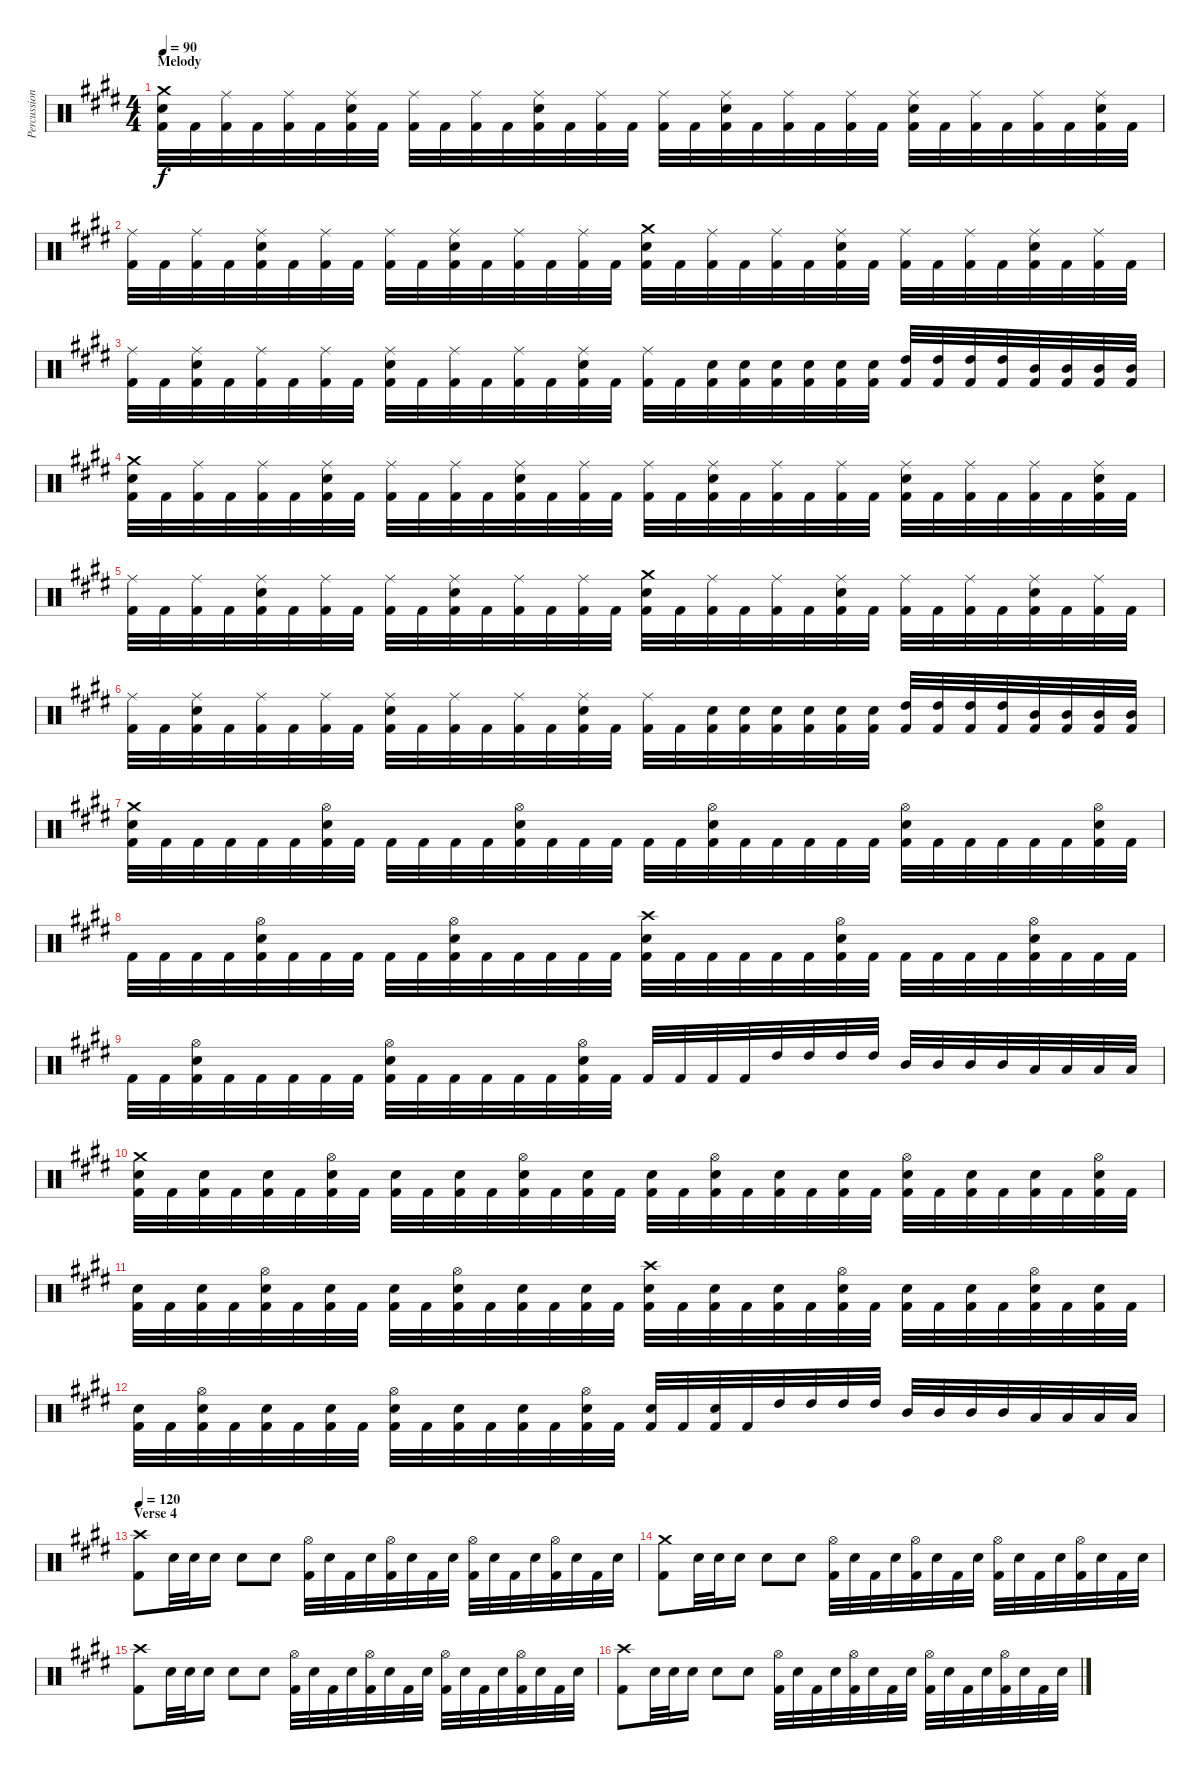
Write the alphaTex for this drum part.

\track ("Percussion" "Percussion") {instrument percussion}
\staff {score}
\articulation defaults
\ts (4 4)
\section ("" "Melody")
\tempo 90
\clef neutral
\ks c#minor
("Crash medium (hit)" "Snare (hit) 2" "Kick (hit) 2").32{dy f} "Kick (hit) 2".32 ("Ride (middle)" "Kick (hit) 2").32 "Kick (hit) 2".32 ("Ride (middle)" "Kick (hit) 2").32 "Kick (hit) 2".32 ("Ride (middle)" "Snare (hit) 2" "Kick (hit) 2").32 "Kick (hit) 2".32 ("Ride (middle)" "Kick (hit) 2").32 "Kick (hit) 2".32 ("Ride (middle)" "Kick (hit) 2").32 "Kick (hit) 2".32 ("Ride (middle)" "Snare (hit) 2" "Kick (hit) 2").32 "Kick (hit) 2".32 ("Ride (middle)" "Kick (hit) 2").32 "Kick (hit) 2".32 ("Ride (middle)" "Kick (hit) 2").32 "Kick (hit) 2".32 ("Ride (middle)" "Snare (hit) 2" "Kick (hit) 2").32 "Kick (hit) 2".32 ("Ride (middle)" "Kick (hit) 2").32 "Kick (hit) 2".32 ("Ride (middle)" "Kick (hit) 2").32 "Kick (hit) 2".32 ("Ride (middle)" "Snare (hit) 2" "Kick (hit) 2").32 "Kick (hit) 2".32 ("Ride (middle)" "Kick (hit) 2").32 "Kick (hit) 2".32 ("Ride (middle)" "Kick (hit) 2").32 "Kick (hit) 2".32 ("Ride (middle)" "Snare (hit) 2" "Kick (hit) 2").32 "Kick (hit) 2".32 |
("Ride (middle)" "Kick (hit) 2").32 "Kick (hit) 2".32 ("Ride (middle)" "Kick (hit) 2").32 "Kick (hit) 2".32 ("Ride (middle)" "Snare (hit) 2" "Kick (hit) 2").32 "Kick (hit) 2".32 ("Ride (middle)" "Kick (hit) 2").32 "Kick (hit) 2".32 ("Ride (middle)" "Kick (hit) 2").32 "Kick (hit) 2".32 ("Ride (middle)" "Snare (hit) 2" "Kick (hit) 2").32 "Kick (hit) 2".32 ("Ride (middle)" "Kick (hit) 2").32 "Kick (hit) 2".32 ("Ride (middle)" "Kick (hit) 2").32 "Kick (hit) 2".32 ("Crash medium (hit)" "Snare (hit) 2" "Kick (hit) 2").32 "Kick (hit) 2".32 ("Ride (middle)" "Kick (hit) 2").32 "Kick (hit) 2".32 ("Ride (middle)" "Kick (hit) 2").32 "Kick (hit) 2".32 ("Ride (middle)" "Snare (hit) 2" "Kick (hit) 2").32 "Kick (hit) 2".32 ("Ride (middle)" "Kick (hit) 2").32 "Kick (hit) 2".32 ("Ride (middle)" "Kick (hit) 2").32 "Kick (hit) 2".32 ("Ride (middle)" "Snare (hit) 2" "Kick (hit) 2").32 "Kick (hit) 2".32 ("Ride (middle)" "Kick (hit) 2").32 "Kick (hit) 2".32 |
("Ride (middle)" "Kick (hit) 2").32 "Kick (hit) 2".32 ("Ride (middle)" "Snare (hit) 2" "Kick (hit) 2").32 "Kick (hit) 2".32 ("Ride (middle)" "Kick (hit) 2").32 "Kick (hit) 2".32 ("Ride (middle)" "Kick (hit) 2").32 "Kick (hit) 2".32 ("Ride (middle)" "Snare (hit) 2" "Kick (hit) 2").32 "Kick (hit) 2".32 ("Ride (middle)" "Kick (hit) 2").32 "Kick (hit) 2".32 ("Ride (middle)" "Kick (hit) 2").32 "Kick (hit) 2".32 ("Ride (middle)" "Snare (hit) 2" "Kick (hit) 2").32 "Kick (hit) 2".32 ("Ride (middle)" "Kick (hit) 2").32 "Kick (hit) 2".32 ("Snare (hit) 2" "Kick (hit) 2").32 ("Snare (hit) 2" "Kick (hit) 2").32 ("Snare (hit) 2" "Kick (hit) 2").32 ("Snare (hit) 2" "Kick (hit) 2").32 ("Snare (hit) 2" "Kick (hit) 2").32 ("Snare (hit) 2" "Kick (hit) 2").32 ("High Tom (hit)" "Kick (hit) 2").32 ("High Tom (hit)" "Kick (hit) 2").32 ("High Tom (hit)" "Kick (hit) 2").32 ("High Tom (hit)" "Kick (hit) 2").32 ("Mid Tom (hit)" "Kick (hit) 2").32 ("Mid Tom (hit)" "Kick (hit) 2").32 ("Mid Tom (hit)" "Kick (hit) 2").32 ("Mid Tom (hit)" "Kick (hit) 2").32 |
("Crash medium (hit)" "Snare (hit) 2" "Kick (hit) 2").32 "Kick (hit) 2".32 ("Ride (middle)" "Kick (hit) 2").32 "Kick (hit) 2".32 ("Ride (middle)" "Kick (hit) 2").32 "Kick (hit) 2".32 ("Ride (middle)" "Snare (hit) 2" "Kick (hit) 2").32 "Kick (hit) 2".32 ("Ride (middle)" "Kick (hit) 2").32 "Kick (hit) 2".32 ("Ride (middle)" "Kick (hit) 2").32 "Kick (hit) 2".32 ("Ride (middle)" "Snare (hit) 2" "Kick (hit) 2").32 "Kick (hit) 2".32 ("Ride (middle)" "Kick (hit) 2").32 "Kick (hit) 2".32 ("Ride (middle)" "Kick (hit) 2").32 "Kick (hit) 2".32 ("Ride (middle)" "Snare (hit) 2" "Kick (hit) 2").32 "Kick (hit) 2".32 ("Ride (middle)" "Kick (hit) 2").32 "Kick (hit) 2".32 ("Ride (middle)" "Kick (hit) 2").32 "Kick (hit) 2".32 ("Ride (middle)" "Snare (hit) 2" "Kick (hit) 2").32 "Kick (hit) 2".32 ("Ride (middle)" "Kick (hit) 2").32 "Kick (hit) 2".32 ("Ride (middle)" "Kick (hit) 2").32 "Kick (hit) 2".32 ("Ride (middle)" "Snare (hit) 2" "Kick (hit) 2").32 "Kick (hit) 2".32 |
("Ride (middle)" "Kick (hit) 2").32 "Kick (hit) 2".32 ("Ride (middle)" "Kick (hit) 2").32 "Kick (hit) 2".32 ("Ride (middle)" "Snare (hit) 2" "Kick (hit) 2").32 "Kick (hit) 2".32 ("Ride (middle)" "Kick (hit) 2").32 "Kick (hit) 2".32 ("Ride (middle)" "Kick (hit) 2").32 "Kick (hit) 2".32 ("Ride (middle)" "Snare (hit) 2" "Kick (hit) 2").32 "Kick (hit) 2".32 ("Ride (middle)" "Kick (hit) 2").32 "Kick (hit) 2".32 ("Ride (middle)" "Kick (hit) 2").32 "Kick (hit) 2".32 ("Crash medium (hit)" "Snare (hit) 2" "Kick (hit) 2").32 "Kick (hit) 2".32 ("Ride (middle)" "Kick (hit) 2").32 "Kick (hit) 2".32 ("Ride (middle)" "Kick (hit) 2").32 "Kick (hit) 2".32 ("Ride (middle)" "Snare (hit) 2" "Kick (hit) 2").32 "Kick (hit) 2".32 ("Ride (middle)" "Kick (hit) 2").32 "Kick (hit) 2".32 ("Ride (middle)" "Kick (hit) 2").32 "Kick (hit) 2".32 ("Ride (middle)" "Snare (hit) 2" "Kick (hit) 2").32 "Kick (hit) 2".32 ("Ride (middle)" "Kick (hit) 2").32 "Kick (hit) 2".32 |
("Ride (middle)" "Kick (hit) 2").32 "Kick (hit) 2".32 ("Ride (middle)" "Snare (hit) 2" "Kick (hit) 2").32 "Kick (hit) 2".32 ("Ride (middle)" "Kick (hit) 2").32 "Kick (hit) 2".32 ("Ride (middle)" "Kick (hit) 2").32 "Kick (hit) 2".32 ("Ride (middle)" "Snare (hit) 2" "Kick (hit) 2").32 "Kick (hit) 2".32 ("Ride (middle)" "Kick (hit) 2").32 "Kick (hit) 2".32 ("Ride (middle)" "Kick (hit) 2").32 "Kick (hit) 2".32 ("Ride (middle)" "Snare (hit) 2" "Kick (hit) 2").32 "Kick (hit) 2".32 ("Ride (middle)" "Kick (hit) 2").32 "Kick (hit) 2".32 ("Snare (hit) 2" "Kick (hit) 2").32 ("Snare (hit) 2" "Kick (hit) 2").32 ("Snare (hit) 2" "Kick (hit) 2").32 ("Snare (hit) 2" "Kick (hit) 2").32 ("Snare (hit) 2" "Kick (hit) 2").32 ("Snare (hit) 2" "Kick (hit) 2").32 ("High Tom (hit)" "Kick (hit) 2").32 ("High Tom (hit)" "Kick (hit) 2").32 ("High Tom (hit)" "Kick (hit) 2").32 ("High Tom (hit)" "Kick (hit) 2").32 ("Mid Tom (hit)" "Kick (hit) 2").32 ("Mid Tom (hit)" "Kick (hit) 2").32 ("Mid Tom (hit)" "Kick (hit) 2").32 ("Mid Tom (hit)" "Kick (hit) 2").32 |
("Crash medium (hit)" "Snare (hit) 2" "Kick (hit) 2").32 "Kick (hit) 2".32 "Kick (hit) 2".32 "Kick (hit) 2".32 "Kick (hit) 2".32 "Kick (hit) 2".32 ("Hi-Hat (open)" "Snare (hit) 2" "Kick (hit) 2").32 "Kick (hit) 2".32 "Kick (hit) 2".32 "Kick (hit) 2".32 "Kick (hit) 2".32 "Kick (hit) 2".32 ("Hi-Hat (open)" "Snare (hit) 2" "Kick (hit) 2").32 "Kick (hit) 2".32 "Kick (hit) 2".32 "Kick (hit) 2".32 "Kick (hit) 2".32 "Kick (hit) 2".32 ("Hi-Hat (open)" "Snare (hit) 2" "Kick (hit) 2").32 "Kick (hit) 2".32 "Kick (hit) 2".32 "Kick (hit) 2".32 "Kick (hit) 2".32 "Kick (hit) 2".32 ("Hi-Hat (open)" "Snare (hit) 2" "Kick (hit) 2").32 "Kick (hit) 2".32 "Kick (hit) 2".32 "Kick (hit) 2".32 "Kick (hit) 2".32 "Kick (hit) 2".32 ("Hi-Hat (open)" "Snare (hit) 2" "Kick (hit) 2").32 "Kick (hit) 2".32 |
"Kick (hit) 2".32 "Kick (hit) 2".32 "Kick (hit) 2".32 "Kick (hit) 2".32 ("Hi-Hat (open)" "Snare (hit) 2" "Kick (hit) 2").32 "Kick (hit) 2".32 "Kick (hit) 2".32 "Kick (hit) 2".32 "Kick (hit) 2".32 "Kick (hit) 2".32 ("Hi-Hat (open)" "Snare (hit) 2" "Kick (hit) 2").32 "Kick (hit) 2".32 "Kick (hit) 2".32 "Kick (hit) 2".32 "Kick (hit) 2".32 "Kick (hit) 2".32 ("Crash high (hit)" "Snare (hit) 2" "Kick (hit) 2").32 "Kick (hit) 2".32 "Kick (hit) 2".32 "Kick (hit) 2".32 "Kick (hit) 2".32 "Kick (hit) 2".32 ("Hi-Hat (open)" "Snare (hit) 2" "Kick (hit) 2").32 "Kick (hit) 2".32 "Kick (hit) 2".32 "Kick (hit) 2".32 "Kick (hit) 2".32 "Kick (hit) 2".32 ("Hi-Hat (open)" "Snare (hit) 2" "Kick (hit) 2").32 "Kick (hit) 2".32 "Kick (hit) 2".32 "Kick (hit) 2".32 |
"Kick (hit) 2".32 "Kick (hit) 2".32 ("Hi-Hat (open)" "Snare (hit) 2" "Kick (hit) 2").32 "Kick (hit) 2".32 "Kick (hit) 2".32 "Kick (hit) 2".32 "Kick (hit) 2".32 "Kick (hit) 2".32 ("Hi-Hat (open)" "Snare (hit) 2" "Kick (hit) 2").32 "Kick (hit) 2".32 "Kick (hit) 2".32 "Kick (hit) 2".32 "Kick (hit) 2".32 "Kick (hit) 2".32 ("Hi-Hat (open)" "Snare (hit) 2" "Kick (hit) 2").32 "Kick (hit) 2".32 "Kick (hit) 2".32 "Kick (hit) 2".32 "Kick (hit) 2".32 "Kick (hit) 2".32 "High Tom (hit)".32 "High Tom (hit)".32 "High Tom (hit)".32 "High Tom (hit)".32 "Mid Tom (hit)".32 "Mid Tom (hit)".32 "Mid Tom (hit)".32 "Mid Tom (hit)".32 "Low Tom (hit)".32 "Low Tom (hit)".32 "Low Tom (hit)".32 "Low Tom (hit)".32 |
("Crash medium (hit)" "Snare (hit) 2" "Kick (hit) 2").32 "Kick (hit) 2".32 ("Snare (hit) 2" "Kick (hit) 2").32 "Kick (hit) 2".32 ("Snare (hit) 2" "Kick (hit) 2").32 "Kick (hit) 2".32 ("Hi-Hat (open)" "Snare (hit) 2" "Kick (hit) 2").32 "Kick (hit) 2".32 ("Snare (hit) 2" "Kick (hit) 2").32 "Kick (hit) 2".32 ("Snare (hit) 2" "Kick (hit) 2").32 "Kick (hit) 2".32 ("Hi-Hat (open)" "Snare (hit) 2" "Kick (hit) 2").32 "Kick (hit) 2".32 ("Snare (hit) 2" "Kick (hit) 2").32 "Kick (hit) 2".32 ("Snare (hit) 2" "Kick (hit) 2").32 "Kick (hit) 2".32 ("Hi-Hat (open)" "Snare (hit) 2" "Kick (hit) 2").32 "Kick (hit) 2".32 ("Snare (hit) 2" "Kick (hit) 2").32 "Kick (hit) 2".32 ("Snare (hit) 2" "Kick (hit) 2").32 "Kick (hit) 2".32 ("Hi-Hat (open)" "Snare (hit) 2" "Kick (hit) 2").32 "Kick (hit) 2".32 ("Snare (hit) 2" "Kick (hit) 2").32 "Kick (hit) 2".32 ("Snare (hit) 2" "Kick (hit) 2").32 "Kick (hit) 2".32 ("Hi-Hat (open)" "Snare (hit) 2" "Kick (hit) 2").32 "Kick (hit) 2".32 |
("Snare (hit) 2" "Kick (hit) 2").32 "Kick (hit) 2".32 ("Snare (hit) 2" "Kick (hit) 2").32 "Kick (hit) 2".32 ("Hi-Hat (open)" "Snare (hit) 2" "Kick (hit) 2").32 "Kick (hit) 2".32 ("Snare (hit) 2" "Kick (hit) 2").32 "Kick (hit) 2".32 ("Snare (hit) 2" "Kick (hit) 2").32 "Kick (hit) 2".32 ("Hi-Hat (open)" "Snare (hit) 2" "Kick (hit) 2").32 "Kick (hit) 2".32 ("Snare (hit) 2" "Kick (hit) 2").32 "Kick (hit) 2".32 ("Snare (hit) 2" "Kick (hit) 2").32 "Kick (hit) 2".32 ("Crash high (hit)" "Snare (hit) 2" "Kick (hit) 2").32 "Kick (hit) 2".32 ("Snare (hit) 2" "Kick (hit) 2").32 "Kick (hit) 2".32 ("Snare (hit) 2" "Kick (hit) 2").32 "Kick (hit) 2".32 ("Hi-Hat (open)" "Snare (hit) 2" "Kick (hit) 2").32 "Kick (hit) 2".32 ("Snare (hit) 2" "Kick (hit) 2").32 "Kick (hit) 2".32 ("Snare (hit) 2" "Kick (hit) 2").32 "Kick (hit) 2".32 ("Hi-Hat (open)" "Snare (hit) 2" "Kick (hit) 2").32 "Kick (hit) 2".32 ("Snare (hit) 2" "Kick (hit) 2").32 "Kick (hit) 2".32 |
("Snare (hit) 2" "Kick (hit) 2").32 "Kick (hit) 2".32 ("Hi-Hat (open)" "Snare (hit) 2" "Kick (hit) 2").32 "Kick (hit) 2".32 ("Snare (hit) 2" "Kick (hit) 2").32 "Kick (hit) 2".32 ("Snare (hit) 2" "Kick (hit) 2").32 "Kick (hit) 2".32 ("Hi-Hat (open)" "Snare (hit) 2" "Kick (hit) 2").32 "Kick (hit) 2".32 ("Snare (hit) 2" "Kick (hit) 2").32 "Kick (hit) 2".32 ("Snare (hit) 2" "Kick (hit) 2").32 "Kick (hit) 2".32 ("Hi-Hat (open)" "Snare (hit) 2" "Kick (hit) 2").32 "Kick (hit) 2".32 ("Snare (hit) 2" "Kick (hit) 2").32 "Kick (hit) 2".32 ("Snare (hit) 2" "Kick (hit) 2").32 "Kick (hit) 2".32 "High Tom (hit)".32 "High Tom (hit)".32 "High Tom (hit)".32 "High Tom (hit)".32 "Mid Tom (hit)".32 "Mid Tom (hit)".32 "Mid Tom (hit)".32 "Mid Tom (hit)".32 "Low Tom (hit)".32 "Low Tom (hit)".32 "Low Tom (hit)".32 "Low Tom (hit)".32 |
\section ("" "Verse 4")
\tempo 120
("Crash high (hit)" "Kick (hit) 2").8 "Snare (hit) 2".32 "Snare (hit) 2".32 "Snare (hit) 2".16 "Snare (hit) 2".8 "Snare (hit) 2".8 ("Hi-Hat (open)" "Kick (hit) 2").32 "Snare (hit) 2".32 "Kick (hit) 2".32 "Snare (hit) 2".32 ("Hi-Hat (open)" "Kick (hit) 2").32 "Snare (hit) 2".32 "Kick (hit) 2".32 "Snare (hit) 2".32 ("Hi-Hat (open)" "Kick (hit) 2").32 "Snare (hit) 2".32 "Kick (hit) 2".32 "Snare (hit) 2".32 ("Hi-Hat (open)" "Kick (hit) 2").32 "Snare (hit) 2".32 "Kick (hit) 2".32 "Snare (hit) 2".32 |
("Crash medium (hit)" "Kick (hit) 2").8 "Snare (hit) 2".32 "Snare (hit) 2".32 "Snare (hit) 2".16 "Snare (hit) 2".8 "Snare (hit) 2".8 ("Hi-Hat (open)" "Kick (hit) 2").32 "Snare (hit) 2".32 "Kick (hit) 2".32 "Snare (hit) 2".32 ("Hi-Hat (open)" "Kick (hit) 2").32 "Snare (hit) 2".32 "Kick (hit) 2".32 "Snare (hit) 2".32 ("Hi-Hat (open)" "Kick (hit) 2").32 "Snare (hit) 2".32 "Kick (hit) 2".32 "Snare (hit) 2".32 ("Hi-Hat (open)" "Kick (hit) 2").32 "Snare (hit) 2".32 "Kick (hit) 2".32 "Snare (hit) 2".32 |
("Crash high (hit)" "Kick (hit) 2").8 "Snare (hit) 2".32 "Snare (hit) 2".32 "Snare (hit) 2".16 "Snare (hit) 2".8 "Snare (hit) 2".8 ("Hi-Hat (open)" "Kick (hit) 2").32 "Snare (hit) 2".32 "Kick (hit) 2".32 "Snare (hit) 2".32 ("Hi-Hat (open)" "Kick (hit) 2").32 "Snare (hit) 2".32 "Kick (hit) 2".32 "Snare (hit) 2".32 ("Hi-Hat (open)" "Kick (hit) 2").32 "Snare (hit) 2".32 "Kick (hit) 2".32 "Snare (hit) 2".32 ("Hi-Hat (open)" "Kick (hit) 2").32 "Snare (hit) 2".32 "Kick (hit) 2".32 "Snare (hit) 2".32 |
("Crash high (hit)" "Kick (hit) 2").8 "Snare (hit) 2".32 "Snare (hit) 2".32 "Snare (hit) 2".16 "Snare (hit) 2".8 "Snare (hit) 2".8 ("Hi-Hat (open)" "Kick (hit) 2").32 "Snare (hit) 2".32 "Kick (hit) 2".32 "Snare (hit) 2".32 ("Hi-Hat (open)" "Kick (hit) 2").32 "Snare (hit) 2".32 "Kick (hit) 2".32 "Snare (hit) 2".32 ("Hi-Hat (open)" "Kick (hit) 2").32 "Snare (hit) 2".32 "Kick (hit) 2".32 "Snare (hit) 2".32 ("Hi-Hat (open)" "Kick (hit) 2").32 "Snare (hit) 2".32 "Kick (hit) 2".32 "Snare (hit) 2".32
